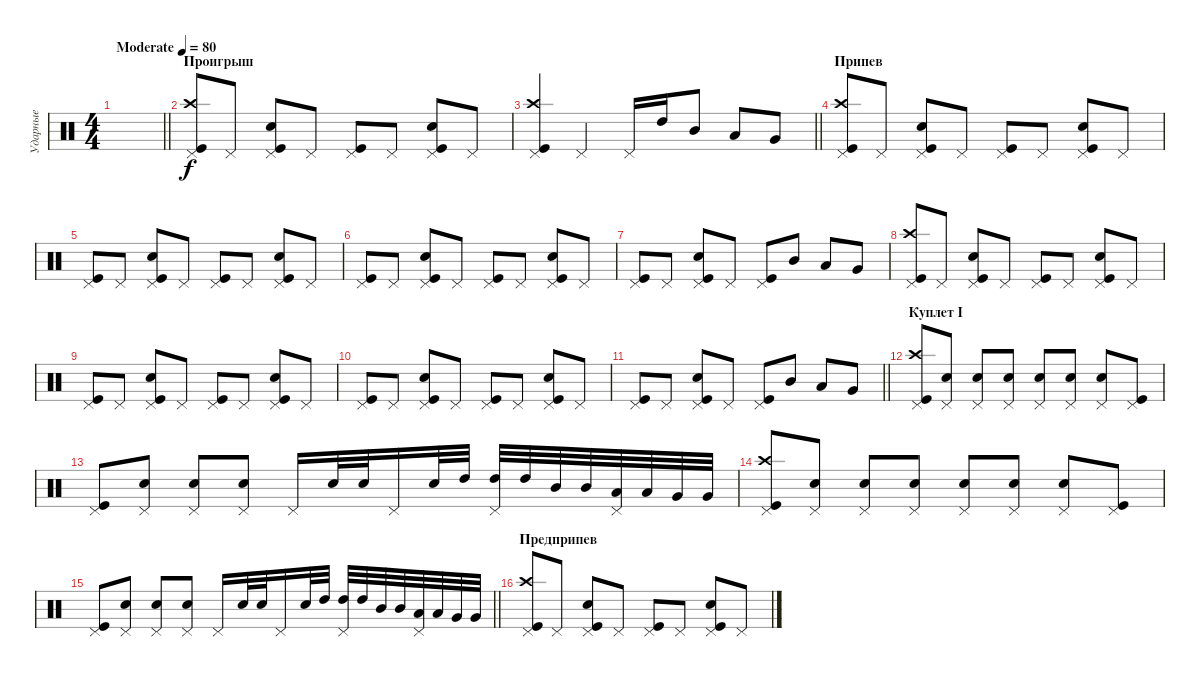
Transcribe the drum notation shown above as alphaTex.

\track ("Ударные" "Ударные") {instrument percussion}
\staff {score}
\articulation defaults
\ts (4 4)
\tempo (80 "Moderate")
\clef neutral
\barLineRight lightlight
\ks c
|
\section ("" "Проигрыш")
("Kick (hit)" "Crash high (hit)" "Pedal Hi-Hat (hit)").8 "Pedal Hi-Hat (hit)".8 ("Kick (hit)" "Snare (hit) 2" "Pedal Hi-Hat (hit)").8 "Pedal Hi-Hat (hit)".8 ("Kick (hit)" "Pedal Hi-Hat (hit)").8 "Pedal Hi-Hat (hit)".8 ("Kick (hit)" "Snare (hit) 2" "Pedal Hi-Hat (hit)").8 "Pedal Hi-Hat (hit)".8 |
\barLineRight lightlight
("Kick (hit)" "Crash high (hit)" "Pedal Hi-Hat (hit)").4 "Pedal Hi-Hat (hit)".4 "Pedal Hi-Hat (hit)".16 "High Tom (hit)".16 "Mid Tom (hit)".8 "Low Tom (hit)".8 "Very Low Tom (hit)".8 |
\section ("" "Припев")
("Kick (hit)" "Crash high (hit)" "Pedal Hi-Hat (hit)").8 "Pedal Hi-Hat (hit)".8 ("Kick (hit)" "Snare (hit) 2" "Pedal Hi-Hat (hit)").8 "Pedal Hi-Hat (hit)".8 ("Kick (hit)" "Pedal Hi-Hat (hit)").8 "Pedal Hi-Hat (hit)".8 ("Kick (hit)" "Snare (hit) 2" "Pedal Hi-Hat (hit)").8 "Pedal Hi-Hat (hit)".8 |
("Kick (hit)" "Pedal Hi-Hat (hit)").8 "Pedal Hi-Hat (hit)".8 ("Kick (hit)" "Snare (hit) 2" "Pedal Hi-Hat (hit)").8 "Pedal Hi-Hat (hit)".8 ("Kick (hit)" "Pedal Hi-Hat (hit)").8 "Pedal Hi-Hat (hit)".8 ("Kick (hit)" "Snare (hit) 2" "Pedal Hi-Hat (hit)").8 "Pedal Hi-Hat (hit)".8 |
("Kick (hit)" "Pedal Hi-Hat (hit)").8 "Pedal Hi-Hat (hit)".8 ("Kick (hit)" "Snare (hit) 2" "Pedal Hi-Hat (hit)").8 "Pedal Hi-Hat (hit)".8 ("Kick (hit)" "Pedal Hi-Hat (hit)").8 "Pedal Hi-Hat (hit)".8 ("Kick (hit)" "Snare (hit) 2" "Pedal Hi-Hat (hit)").8 "Pedal Hi-Hat (hit)".8 |
("Kick (hit)" "Pedal Hi-Hat (hit)").8 "Pedal Hi-Hat (hit)".8 ("Kick (hit)" "Snare (hit) 2" "Pedal Hi-Hat (hit)").8 "Pedal Hi-Hat (hit)".8 ("Kick (hit)" "Pedal Hi-Hat (hit)").8 "Mid Tom (hit)".8 "Low Tom (hit)".8 "Very Low Tom (hit)".8 |
("Kick (hit)" "Crash high (hit)" "Pedal Hi-Hat (hit)").8 "Pedal Hi-Hat (hit)".8 ("Kick (hit)" "Snare (hit) 2" "Pedal Hi-Hat (hit)").8 "Pedal Hi-Hat (hit)".8 ("Kick (hit)" "Pedal Hi-Hat (hit)").8 "Pedal Hi-Hat (hit)".8 ("Kick (hit)" "Snare (hit) 2" "Pedal Hi-Hat (hit)").8 "Pedal Hi-Hat (hit)".8 |
("Kick (hit)" "Pedal Hi-Hat (hit)").8 "Pedal Hi-Hat (hit)".8 ("Kick (hit)" "Snare (hit) 2" "Pedal Hi-Hat (hit)").8 "Pedal Hi-Hat (hit)".8 ("Kick (hit)" "Pedal Hi-Hat (hit)").8 "Pedal Hi-Hat (hit)".8 ("Kick (hit)" "Snare (hit) 2" "Pedal Hi-Hat (hit)").8 "Pedal Hi-Hat (hit)".8 |
("Kick (hit)" "Pedal Hi-Hat (hit)").8 "Pedal Hi-Hat (hit)".8 ("Kick (hit)" "Snare (hit) 2" "Pedal Hi-Hat (hit)").8 "Pedal Hi-Hat (hit)".8 ("Kick (hit)" "Pedal Hi-Hat (hit)").8 "Pedal Hi-Hat (hit)".8 ("Kick (hit)" "Snare (hit) 2" "Pedal Hi-Hat (hit)").8 "Pedal Hi-Hat (hit)".8 |
\barLineRight lightlight
("Kick (hit)" "Pedal Hi-Hat (hit)").8 "Pedal Hi-Hat (hit)".8 ("Kick (hit)" "Snare (hit) 2" "Pedal Hi-Hat (hit)").8 "Pedal Hi-Hat (hit)".8 ("Kick (hit)" "Pedal Hi-Hat (hit)").8 "Mid Tom (hit)".8 "Low Tom (hit)".8 "Very Low Tom (hit)".8 |
\section ("" "Куплет I")
("Kick (hit)" "Pedal Hi-Hat (hit)" "Crash high (hit)").8 ("Pedal Hi-Hat (hit)" "Snare (hit) 2").8 ("Pedal Hi-Hat (hit)" "Snare (hit) 2").8 ("Pedal Hi-Hat (hit)" "Snare (hit) 2").8 ("Pedal Hi-Hat (hit)" "Snare (hit) 2").8 ("Pedal Hi-Hat (hit)" "Snare (hit) 2").8 ("Pedal Hi-Hat (hit)" "Snare (hit) 2").8 ("Kick (hit)" "Pedal Hi-Hat (hit)").8 |
("Kick (hit)" "Pedal Hi-Hat (hit)").8 ("Pedal Hi-Hat (hit)" "Snare (hit) 2").8 ("Pedal Hi-Hat (hit)" "Snare (hit) 2").8 ("Pedal Hi-Hat (hit)" "Snare (hit) 2").8 "Pedal Hi-Hat (hit)".16 "Snare (hit) 2".32 "Snare (hit) 2".32 "Pedal Hi-Hat (hit)".16 "Snare (hit) 2".32 "High Tom (hit)".32 ("High Tom (hit)" "Pedal Hi-Hat (hit)").32 "High Tom (hit)".32 "Mid Tom (hit)".32 "Mid Tom (hit)".32 ("Low Tom (hit)" "Pedal Hi-Hat (hit)").32 "Low Tom (hit)".32 "Very Low Tom (hit)".32 "Very Low Tom (hit)".32 |
("Kick (hit)" "Pedal Hi-Hat (hit)" "Crash high (hit)").8 ("Pedal Hi-Hat (hit)" "Snare (hit) 2").8 ("Pedal Hi-Hat (hit)" "Snare (hit) 2").8 ("Pedal Hi-Hat (hit)" "Snare (hit) 2").8 ("Pedal Hi-Hat (hit)" "Snare (hit) 2").8 ("Pedal Hi-Hat (hit)" "Snare (hit) 2").8 ("Pedal Hi-Hat (hit)" "Snare (hit) 2").8 ("Kick (hit)" "Pedal Hi-Hat (hit)").8 |
\barLineRight lightlight
("Kick (hit)" "Pedal Hi-Hat (hit)").8 ("Pedal Hi-Hat (hit)" "Snare (hit) 2").8 ("Pedal Hi-Hat (hit)" "Snare (hit) 2").8 ("Pedal Hi-Hat (hit)" "Snare (hit) 2").8 "Pedal Hi-Hat (hit)".16 "Snare (hit) 2".32 "Snare (hit) 2".32 "Pedal Hi-Hat (hit)".16 "Snare (hit) 2".32 "High Tom (hit)".32 ("High Tom (hit)" "Pedal Hi-Hat (hit)").32 "High Tom (hit)".32 "Mid Tom (hit)".32 "Mid Tom (hit)".32 ("Low Tom (hit)" "Pedal Hi-Hat (hit)").32 "Low Tom (hit)".32 "Very Low Tom (hit)".32 "Very Low Tom (hit)".32 |
\section ("" "Предприпев")
("Kick (hit)" "Crash high (hit)" "Pedal Hi-Hat (hit)").8 "Pedal Hi-Hat (hit)".8 ("Kick (hit)" "Snare (hit) 2" "Pedal Hi-Hat (hit)").8 "Pedal Hi-Hat (hit)".8 ("Kick (hit)" "Pedal Hi-Hat (hit)").8 "Pedal Hi-Hat (hit)".8 ("Kick (hit)" "Snare (hit) 2" "Pedal Hi-Hat (hit)").8 "Pedal Hi-Hat (hit)".8
